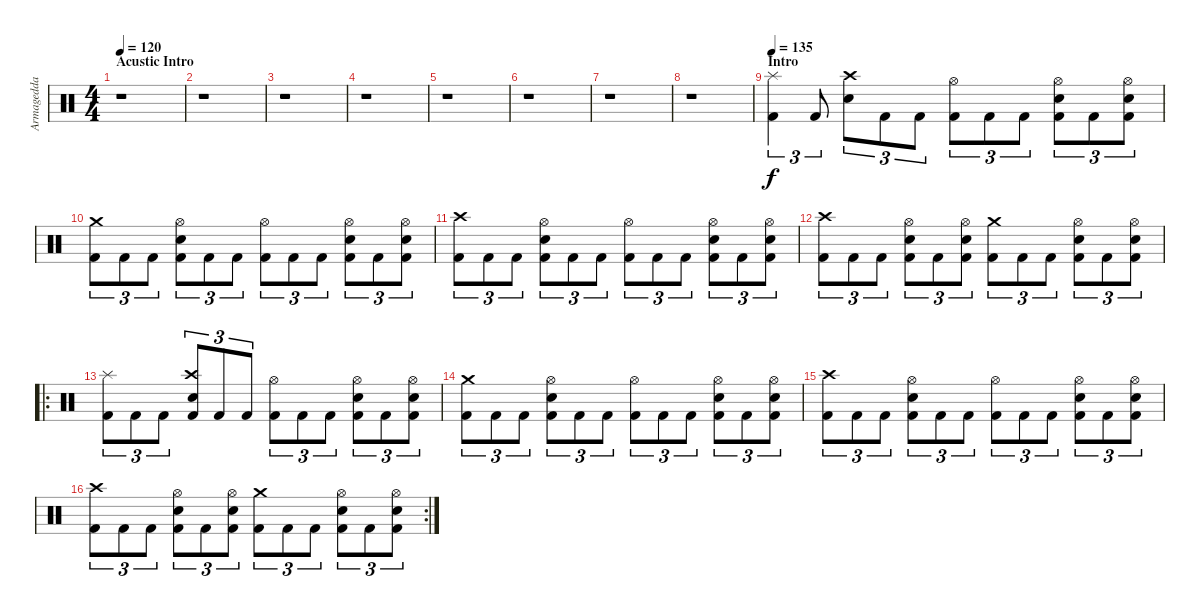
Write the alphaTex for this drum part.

\track ("Armagedda" "Armagedda") {instrument percussion}
\staff {score}
\articulation defaults
\ts (4 4)
\section ("" "Acustic Intro")
\tempo 120
\tempo 140
\tempo 120
\clef neutral
\ks c
r.1{dy f} |
r.1 |
r.1 |
r.1 |
r.1 |
r.1 |
r.1 |
r.1 |
\section ("" "Intro")
\tempo 135
("Splash (hit)" "Kick (hit) 2").4{tu (3 2)} "Kick (hit) 2".8{tu (3 2)} ("Crash high (hit)" "Electric Snare (hit)").8{tu (3 2)} "Kick (hit) 2".8{tu (3 2)} "Kick (hit) 2".8{tu (3 2)} ("Hi-Hat (open)" "Kick (hit) 2").8{tu (3 2)} "Kick (hit) 2".8{tu (3 2)} "Kick (hit) 2".8{tu (3 2)} ("Hi-Hat (open)" "Electric Snare (hit)" "Kick (hit) 2").8{tu (3 2)} "Kick (hit) 2".8{tu (3 2)} ("Hi-Hat (open)" "Electric Snare (hit)" "Kick (hit) 2").8{tu (3 2)} |
("Crash medium (hit)" "Kick (hit) 2").8{tu (3 2)} "Kick (hit) 2".8{tu (3 2)} "Kick (hit) 2".8{tu (3 2)} ("Hi-Hat (open)" "Electric Snare (hit)" "Kick (hit) 2").8{tu (3 2)} "Kick (hit) 2".8{tu (3 2)} "Kick (hit) 2".8{tu (3 2)} ("Hi-Hat (open)" "Kick (hit) 2").8{tu (3 2)} "Kick (hit) 2".8{tu (3 2)} "Kick (hit) 2".8{tu (3 2)} ("Hi-Hat (open)" "Electric Snare (hit)" "Kick (hit) 2").8{tu (3 2)} "Kick (hit) 2".8{tu (3 2)} ("Hi-Hat (open)" "Electric Snare (hit)" "Kick (hit) 2").8{tu (3 2)} |
("Crash high (hit)" "Kick (hit) 2").8{tu (3 2)} "Kick (hit) 2".8{tu (3 2)} "Kick (hit) 2".8{tu (3 2)} ("Hi-Hat (open)" "Electric Snare (hit)" "Kick (hit) 2").8{tu (3 2)} "Kick (hit) 2".8{tu (3 2)} "Kick (hit) 2".8{tu (3 2)} ("Hi-Hat (open)" "Kick (hit) 2").8{tu (3 2)} "Kick (hit) 2".8{tu (3 2)} "Kick (hit) 2".8{tu (3 2)} ("Hi-Hat (open)" "Electric Snare (hit)" "Kick (hit) 2").8{tu (3 2)} "Kick (hit) 2".8{tu (3 2)} ("Hi-Hat (open)" "Electric Snare (hit)" "Kick (hit) 2").8{tu (3 2)} |
("Crash high (hit)" "Kick (hit) 2").8{tu (3 2)} "Kick (hit) 2".8{tu (3 2)} "Kick (hit) 2".8{tu (3 2)} ("Hi-Hat (open)" "Electric Snare (hit)" "Kick (hit) 2").8{tu (3 2)} "Kick (hit) 2".8{tu (3 2)} ("Hi-Hat (open)" "Electric Snare (hit)" "Kick (hit) 2").8{tu (3 2)} ("Crash medium (hit)" "Kick (hit) 2").8{tu (3 2)} "Kick (hit) 2".8{tu (3 2)} "Kick (hit) 2".8{tu (3 2)} ("Hi-Hat (open)" "Electric Snare (hit)" "Kick (hit) 2").8{tu (3 2)} "Kick (hit) 2".8{tu (3 2)} ("Hi-Hat (open)" "Electric Snare (hit)" "Kick (hit) 2").8{tu (3 2)} |
\ro
("Splash (hit)" "Kick (hit) 2").8{tu (3 2)} "Kick (hit) 2".8{tu (3 2)} "Kick (hit) 2".8{tu (3 2)} ("Crash high (hit)" "Electric Snare (hit)" "Kick (hit) 2").8{tu (3 2)} "Kick (hit) 2".8{tu (3 2)} "Kick (hit) 2".8{tu (3 2)} ("Hi-Hat (open)" "Kick (hit) 2").8{tu (3 2)} "Kick (hit) 2".8{tu (3 2)} "Kick (hit) 2".8{tu (3 2)} ("Hi-Hat (open)" "Electric Snare (hit)" "Kick (hit) 2").8{tu (3 2)} "Kick (hit) 2".8{tu (3 2)} ("Hi-Hat (open)" "Electric Snare (hit)" "Kick (hit) 2").8{tu (3 2)} |
("Crash medium (hit)" "Kick (hit) 2").8{tu (3 2)} "Kick (hit) 2".8{tu (3 2)} "Kick (hit) 2".8{tu (3 2)} ("Hi-Hat (open)" "Electric Snare (hit)" "Kick (hit) 2").8{tu (3 2)} "Kick (hit) 2".8{tu (3 2)} "Kick (hit) 2".8{tu (3 2)} ("Hi-Hat (open)" "Kick (hit) 2").8{tu (3 2)} "Kick (hit) 2".8{tu (3 2)} "Kick (hit) 2".8{tu (3 2)} ("Hi-Hat (open)" "Electric Snare (hit)" "Kick (hit) 2").8{tu (3 2)} "Kick (hit) 2".8{tu (3 2)} ("Hi-Hat (open)" "Electric Snare (hit)" "Kick (hit) 2").8{tu (3 2)} |
("Crash high (hit)" "Kick (hit) 2").8{tu (3 2)} "Kick (hit) 2".8{tu (3 2)} "Kick (hit) 2".8{tu (3 2)} ("Hi-Hat (open)" "Electric Snare (hit)" "Kick (hit) 2").8{tu (3 2)} "Kick (hit) 2".8{tu (3 2)} "Kick (hit) 2".8{tu (3 2)} ("Hi-Hat (open)" "Kick (hit) 2").8{tu (3 2)} "Kick (hit) 2".8{tu (3 2)} "Kick (hit) 2".8{tu (3 2)} ("Hi-Hat (open)" "Electric Snare (hit)" "Kick (hit) 2").8{tu (3 2)} "Kick (hit) 2".8{tu (3 2)} ("Hi-Hat (open)" "Electric Snare (hit)" "Kick (hit) 2").8{tu (3 2)} |
\rc 2
("Crash high (hit)" "Kick (hit) 2").8{tu (3 2)} "Kick (hit) 2".8{tu (3 2)} "Kick (hit) 2".8{tu (3 2)} ("Hi-Hat (open)" "Electric Snare (hit)" "Kick (hit) 2").8{tu (3 2)} "Kick (hit) 2".8{tu (3 2)} ("Hi-Hat (open)" "Electric Snare (hit)" "Kick (hit) 2").8{tu (3 2)} ("Crash medium (hit)" "Kick (hit) 2").8{tu (3 2)} "Kick (hit) 2".8{tu (3 2)} "Kick (hit) 2".8{tu (3 2)} ("Hi-Hat (open)" "Electric Snare (hit)" "Kick (hit) 2").8{tu (3 2)} "Kick (hit) 2".8{tu (3 2)} ("Hi-Hat (open)" "Electric Snare (hit)" "Kick (hit) 2").8{tu (3 2)}
